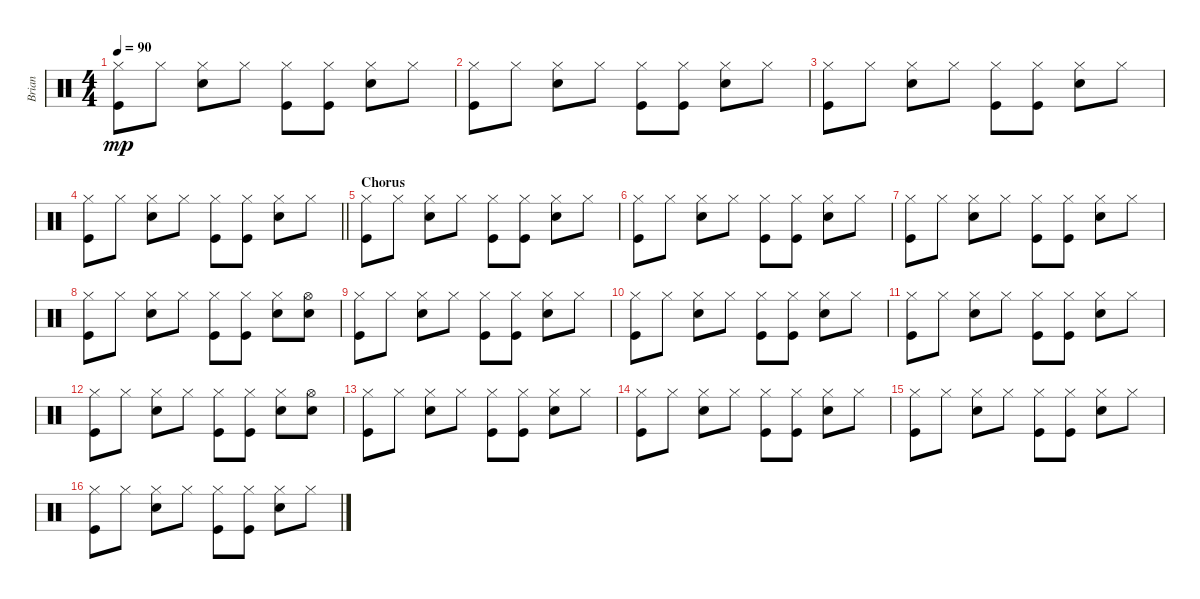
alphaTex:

\track ("Brian" "Brian") {instrument percussion}
\staff {score}
\articulation defaults
\ts (4 4)
\tempo 90
\clef neutral
\ks c
("Hi-Hat (closed)" "Kick (hit)").8{dy mp} "Hi-Hat (closed)".8 ("Hi-Hat (closed)" "Snare (hit) 2").8 "Hi-Hat (closed)".8 ("Hi-Hat (closed)" "Kick (hit)").8 ("Hi-Hat (closed)" "Kick (hit)").8 ("Hi-Hat (closed)" "Snare (hit) 2").8 "Hi-Hat (closed)".8 |
("Hi-Hat (closed)" "Kick (hit)").8 "Hi-Hat (closed)".8 ("Hi-Hat (closed)" "Snare (hit) 2").8 "Hi-Hat (closed)".8 ("Hi-Hat (closed)" "Kick (hit)").8 ("Hi-Hat (closed)" "Kick (hit)").8 ("Hi-Hat (closed)" "Snare (hit) 2").8 "Hi-Hat (closed)".8 |
("Hi-Hat (closed)" "Kick (hit)").8 "Hi-Hat (closed)".8 ("Hi-Hat (closed)" "Snare (hit) 2").8 "Hi-Hat (closed)".8 ("Hi-Hat (closed)" "Kick (hit)").8 ("Hi-Hat (closed)" "Kick (hit)").8 ("Hi-Hat (closed)" "Snare (hit) 2").8 "Hi-Hat (closed)".8 |
\barLineRight lightlight
("Hi-Hat (closed)" "Kick (hit)").8 "Hi-Hat (closed)".8 ("Hi-Hat (closed)" "Snare (hit) 2").8 "Hi-Hat (closed)".8 ("Hi-Hat (closed)" "Kick (hit)").8 ("Hi-Hat (closed)" "Kick (hit)").8 ("Hi-Hat (closed)" "Snare (hit) 2").8 "Hi-Hat (closed)".8 |
\section ("" "Chorus")
("Hi-Hat (closed)" "Kick (hit)").8 "Hi-Hat (closed)".8 ("Hi-Hat (closed)" "Snare (hit) 2").8 "Hi-Hat (closed)".8 ("Hi-Hat (closed)" "Kick (hit)").8 ("Hi-Hat (closed)" "Kick (hit)").8 ("Hi-Hat (closed)" "Snare (hit) 2").8 "Hi-Hat (closed)".8 |
("Hi-Hat (closed)" "Kick (hit)").8 "Hi-Hat (closed)".8 ("Hi-Hat (closed)" "Snare (hit) 2").8 "Hi-Hat (closed)".8 ("Hi-Hat (closed)" "Kick (hit)").8 ("Hi-Hat (closed)" "Kick (hit)").8 ("Hi-Hat (closed)" "Snare (hit) 2").8 "Hi-Hat (closed)".8 |
("Hi-Hat (closed)" "Kick (hit)").8 "Hi-Hat (closed)".8 ("Hi-Hat (closed)" "Snare (hit) 2").8 "Hi-Hat (closed)".8 ("Hi-Hat (closed)" "Kick (hit)").8 ("Hi-Hat (closed)" "Kick (hit)").8 ("Hi-Hat (closed)" "Snare (hit) 2").8 "Hi-Hat (closed)".8 |
("Hi-Hat (closed)" "Kick (hit)").8 "Hi-Hat (closed)".8 ("Hi-Hat (closed)" "Snare (hit) 2").8 "Hi-Hat (closed)".8 ("Hi-Hat (closed)" "Kick (hit)").8 ("Hi-Hat (closed)" "Kick (hit)").8 ("Hi-Hat (closed)" "Snare (hit) 2").8 ("Hi-Hat (open)" "Snare (hit) 2").8 |
("Hi-Hat (closed)" "Kick (hit)").8 "Hi-Hat (closed)".8 ("Hi-Hat (closed)" "Snare (hit) 2").8 "Hi-Hat (closed)".8 ("Hi-Hat (closed)" "Kick (hit)").8 ("Hi-Hat (closed)" "Kick (hit)").8 ("Hi-Hat (closed)" "Snare (hit) 2").8 "Hi-Hat (closed)".8 |
("Hi-Hat (closed)" "Kick (hit)").8 "Hi-Hat (closed)".8 ("Hi-Hat (closed)" "Snare (hit) 2").8 "Hi-Hat (closed)".8 ("Hi-Hat (closed)" "Kick (hit)").8 ("Hi-Hat (closed)" "Kick (hit)").8 ("Hi-Hat (closed)" "Snare (hit) 2").8 "Hi-Hat (closed)".8 |
("Hi-Hat (closed)" "Kick (hit)").8 "Hi-Hat (closed)".8 ("Hi-Hat (closed)" "Snare (hit) 2").8 "Hi-Hat (closed)".8 ("Hi-Hat (closed)" "Kick (hit)").8 ("Hi-Hat (closed)" "Kick (hit)").8 ("Hi-Hat (closed)" "Snare (hit) 2").8 "Hi-Hat (closed)".8 |
("Hi-Hat (closed)" "Kick (hit)").8 "Hi-Hat (closed)".8 ("Hi-Hat (closed)" "Snare (hit) 2").8 "Hi-Hat (closed)".8 ("Hi-Hat (closed)" "Kick (hit)").8 ("Hi-Hat (closed)" "Kick (hit)").8 ("Hi-Hat (closed)" "Snare (hit) 2").8 ("Hi-Hat (open)" "Snare (hit) 2").8 |
("Hi-Hat (closed)" "Kick (hit)").8 "Hi-Hat (closed)".8 ("Hi-Hat (closed)" "Snare (hit) 2").8 "Hi-Hat (closed)".8 ("Hi-Hat (closed)" "Kick (hit)").8 ("Hi-Hat (closed)" "Kick (hit)").8 ("Hi-Hat (closed)" "Snare (hit) 2").8 "Hi-Hat (closed)".8 |
("Hi-Hat (closed)" "Kick (hit)").8 "Hi-Hat (closed)".8 ("Hi-Hat (closed)" "Snare (hit) 2").8 "Hi-Hat (closed)".8 ("Hi-Hat (closed)" "Kick (hit)").8 ("Hi-Hat (closed)" "Kick (hit)").8 ("Hi-Hat (closed)" "Snare (hit) 2").8 "Hi-Hat (closed)".8 |
("Hi-Hat (closed)" "Kick (hit)").8 "Hi-Hat (closed)".8 ("Hi-Hat (closed)" "Snare (hit) 2").8 "Hi-Hat (closed)".8 ("Hi-Hat (closed)" "Kick (hit)").8 ("Hi-Hat (closed)" "Kick (hit)").8 ("Hi-Hat (closed)" "Snare (hit) 2").8 "Hi-Hat (closed)".8 |
("Hi-Hat (closed)" "Kick (hit)").8 "Hi-Hat (closed)".8 ("Hi-Hat (closed)" "Snare (hit) 2").8 "Hi-Hat (closed)".8 ("Hi-Hat (closed)" "Kick (hit)").8 ("Hi-Hat (closed)" "Kick (hit)").8 ("Hi-Hat (closed)" "Snare (hit) 2").8 "Hi-Hat (closed)".8
